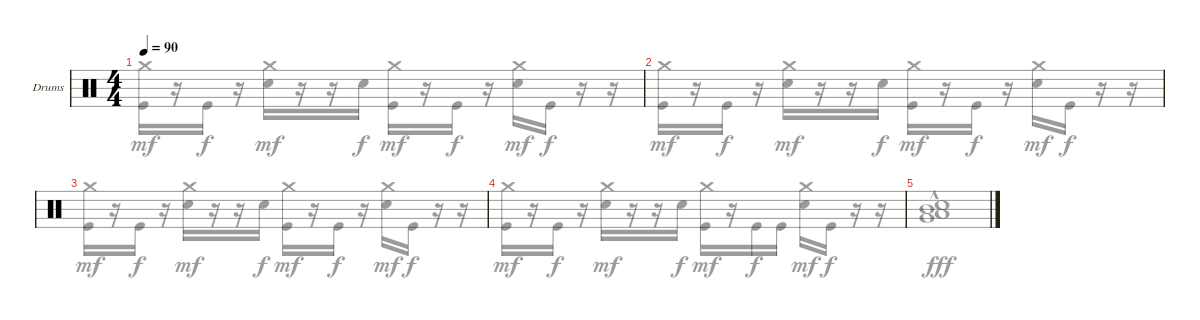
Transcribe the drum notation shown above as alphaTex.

\defaultSystemsLayout 4
\bracketExtendMode groupsimilarinstruments
\firstSystemTrackNameOrientation horizontal
\otherSystemsTrackNameOrientation horizontal
\track ("Drumkit" "Drums") {instrument percussion}
\staff {score}
\articulation defaults
\voice
\ts (4 4)
\tempo 90
\clef neutral
\scale
0.333333
\ks c
|
\scale
0.333333 |
\scale
0.333333 |
\scale
0.333333 |
\voice
\clef neutral
\ottava regular
\simile none
\scale
0.333333
\ks c
("Crash medium (hit)" "Kick (hit)").16{dy mf} r.16 "Kick (hit)".16{dy f} r.16 ("Crash medium (hit)" "Snare (hit) 2").16{dy mf} r.16 r.16 "Snare (hit) 2".16{dy f} ("Crash medium (hit)" "Kick (hit)").16{dy mf} r.16 "Kick (hit)".16{dy f} r.16 ("Crash medium (hit)" "Snare (hit) 2").16{dy mf} "Kick (hit)".16{dy f} r.16 r.16 |
\scale
0.333333 ("Crash medium (hit)" "Kick (hit)").16{dy mf} r.16 "Kick (hit)".16{dy f} r.16 ("Crash medium (hit)" "Snare (hit) 2").16{dy mf} r.16 r.16 "Snare (hit) 2".16{dy f} ("Crash medium (hit)" "Kick (hit)").16{dy mf} r.16 "Kick (hit)".16{dy f} r.16 ("Crash medium (hit)" "Snare (hit) 2").16{dy mf} "Kick (hit)".16{dy f} r.16 r.16 |
\scale
0.333333 ("Crash medium (hit)" "Kick (hit)").16{dy mf} r.16 "Kick (hit)".16{dy f} r.16 ("Crash medium (hit)" "Snare (hit) 2").16{dy mf} r.16 r.16 "Snare (hit) 2".16{dy f} ("Crash medium (hit)" "Kick (hit)").16{dy mf} r.16 "Kick (hit)".16{dy f} r.16 ("Crash medium (hit)" "Snare (hit) 2").16{dy mf} "Kick (hit)".16{dy f} r.16 r.16 |
\scale
0.333333 ("Crash medium (hit)" "Kick (hit)").16{dy mf} r.16 "Kick (hit)".16{dy f} r.16 ("Crash medium (hit)" "Snare (hit) 2").16{dy mf} r.16 r.16 "Snare (hit) 2".16{dy f} ("Crash medium (hit)" "Kick (hit)").16{dy mf} r.16 "Kick (hit)".16{dy f} "Kick (hit)".16 ("Crash medium (hit)" "Snare (hit) 2").16{dy mf} "Kick (hit)".16{dy f} r.16 r.16 |
("Low Tom (hit)"{hac} "Mid Tom (hit)" "Very Low Tom (hit)" "Snare (hit) 2").1{dy fff}
